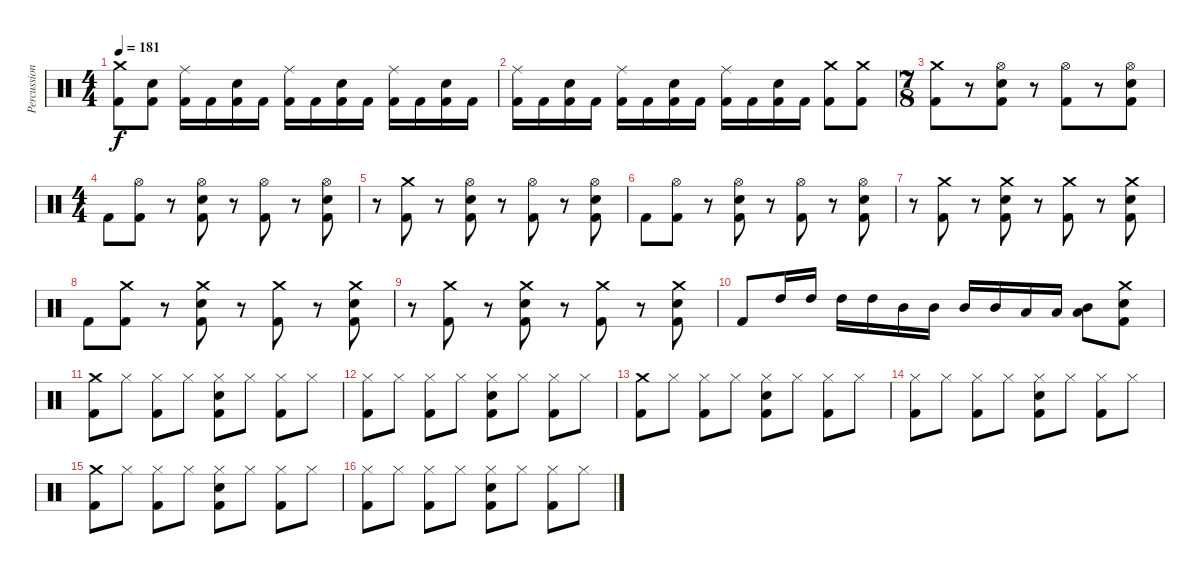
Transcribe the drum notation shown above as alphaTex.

\track ("Percussion" "Percussion") {instrument percussion}
\staff {score}
\articulation defaults
\ts (4 4)
\tempo 181
\clef neutral
\ks c
("Crash medium (hit)" "Kick (hit) 2").8{dy f} ("Electric Snare (hit)" "Kick (hit) 2").8 ("Ride (middle)" "Kick (hit) 2").16 "Kick (hit) 2".16 ("Electric Snare (hit)" "Kick (hit) 2").16 "Kick (hit) 2".16 ("Ride (middle)" "Kick (hit) 2").16 "Kick (hit) 2".16 ("Electric Snare (hit)" "Kick (hit) 2").16 "Kick (hit) 2".16 ("Ride (middle)" "Kick (hit) 2").16 "Kick (hit) 2".16 ("Electric Snare (hit)" "Kick (hit) 2").16 "Kick (hit) 2".16 |
("Ride (middle)" "Kick (hit) 2").16 "Kick (hit) 2".16 ("Electric Snare (hit)" "Kick (hit) 2").16 "Kick (hit) 2".16 ("Ride (middle)" "Kick (hit) 2").16 "Kick (hit) 2".16 ("Electric Snare (hit)" "Kick (hit) 2").16 "Kick (hit) 2".16 ("Ride (middle)" "Kick (hit) 2").16 "Kick (hit) 2".16 ("Electric Snare (hit)" "Kick (hit) 2").16 "Kick (hit) 2".16 ("Crash medium (hit)" "Kick (hit) 2").8 ("Crash medium (hit)" "Kick (hit) 2").8 |
\ts (7 8)
("Crash medium (hit)" "Kick (hit) 2").8 r.8 ("Hi-Hat (open)" "Electric Snare (hit)" "Kick (hit) 2").8 r.8 ("Hi-Hat (open)" "Kick (hit) 2").8 r.8 ("Hi-Hat (open)" "Electric Snare (hit)" "Kick (hit) 2").8 |
\ts (4 4)
"Kick (hit) 2".8 ("Hi-Hat (open)" "Kick (hit) 2").8 r.8 ("Hi-Hat (open)" "Electric Snare (hit)" "Kick (hit) 2").8 r.8 ("Hi-Hat (open)" "Kick (hit) 2").8 r.8 ("Hi-Hat (open)" "Electric Snare (hit)" "Kick (hit) 2").8 |
r.8 ("Crash medium (hit)" "Kick (hit) 2").8 r.8 ("Hi-Hat (open)" "Electric Snare (hit)" "Kick (hit) 2").8 r.8 ("Hi-Hat (open)" "Kick (hit) 2").8 r.8 ("Hi-Hat (open)" "Electric Snare (hit)" "Kick (hit) 2").8 |
"Kick (hit) 2".8 ("Hi-Hat (open)" "Kick (hit) 2").8 r.8 ("Hi-Hat (open)" "Electric Snare (hit)" "Kick (hit) 2").8 r.8 ("Hi-Hat (open)" "Kick (hit) 2").8 r.8 ("Hi-Hat (open)" "Electric Snare (hit)" "Kick (hit) 2").8 |
r.8 ("Crash medium (hit)" "Kick (hit) 2").8 r.8 ("Crash medium (hit)" "Electric Snare (hit)" "Kick (hit) 2").8 r.8 ("Crash medium (hit)" "Kick (hit) 2").8 r.8 ("Crash medium (hit)" "Electric Snare (hit)" "Kick (hit) 2").8 |
"Kick (hit) 2".8 ("Crash medium (hit)" "Kick (hit) 2").8 r.8 ("Crash medium (hit)" "Electric Snare (hit)" "Kick (hit) 2").8 r.8 ("Crash medium (hit)" "Kick (hit) 2").8 r.8 ("Crash medium (hit)" "Electric Snare (hit)" "Kick (hit) 2").8 |
r.8 ("Crash medium (hit)" "Kick (hit) 2").8 r.8 ("Crash medium (hit)" "Electric Snare (hit)" "Kick (hit) 2").8 r.8 ("Crash medium (hit)" "Kick (hit) 2").8 r.8 ("Crash medium (hit)" "Electric Snare (hit)" "Kick (hit) 2").8 |
"Kick (hit) 2".8 "High Tom (hit)".16 "High Tom (hit)".16 "High Tom (hit)".16 "High Tom (hit)".16 "Mid Tom (hit)".16 "Mid Tom (hit)".16 "Mid Tom (hit)".16 "Mid Tom (hit)".16 "Low Tom (hit)".16 "Low Tom (hit)".16 ("Mid Tom (hit)" "Low Tom (hit)").8 ("Crash medium (hit)" "Electric Snare (hit)" "Kick (hit) 2").8 |
("Crash medium (hit)" "Kick (hit) 2").8 "Hi-Hat (closed)".8 ("Hi-Hat (closed)" "Kick (hit) 2").8 "Hi-Hat (closed)".8 ("Hi-Hat (closed)" "Electric Snare (hit)" "Kick (hit) 2").8 "Hi-Hat (closed)".8 ("Hi-Hat (closed)" "Kick (hit) 2").8 "Hi-Hat (closed)".8 |
("Hi-Hat (closed)" "Kick (hit) 2").8 "Hi-Hat (closed)".8 ("Hi-Hat (closed)" "Kick (hit) 2").8 "Hi-Hat (closed)".8 ("Hi-Hat (closed)" "Electric Snare (hit)" "Kick (hit) 2").8 "Hi-Hat (closed)".8 ("Hi-Hat (closed)" "Kick (hit) 2").8 "Hi-Hat (closed)".8 |
("Crash medium (hit)" "Kick (hit) 2").8 "Hi-Hat (closed)".8 ("Hi-Hat (closed)" "Kick (hit) 2").8 "Hi-Hat (closed)".8 ("Hi-Hat (closed)" "Electric Snare (hit)" "Kick (hit) 2").8 "Hi-Hat (closed)".8 ("Hi-Hat (closed)" "Kick (hit) 2").8 "Hi-Hat (closed)".8 |
("Hi-Hat (closed)" "Kick (hit) 2").8 "Hi-Hat (closed)".8 ("Hi-Hat (closed)" "Kick (hit) 2").8 "Hi-Hat (closed)".8 ("Hi-Hat (closed)" "Electric Snare (hit)" "Kick (hit) 2").8 "Hi-Hat (closed)".8 ("Hi-Hat (closed)" "Kick (hit) 2").8 "Hi-Hat (closed)".8 |
("Crash medium (hit)" "Kick (hit) 2").8 "Hi-Hat (closed)".8 ("Hi-Hat (closed)" "Kick (hit) 2").8 "Hi-Hat (closed)".8 ("Hi-Hat (closed)" "Electric Snare (hit)" "Kick (hit) 2").8 "Hi-Hat (closed)".8 ("Hi-Hat (closed)" "Kick (hit) 2").8 "Hi-Hat (closed)".8 |
("Hi-Hat (closed)" "Kick (hit) 2").8 "Hi-Hat (closed)".8 ("Hi-Hat (closed)" "Kick (hit) 2").8 "Hi-Hat (closed)".8 ("Hi-Hat (closed)" "Electric Snare (hit)" "Kick (hit) 2").8 "Hi-Hat (closed)".8 ("Hi-Hat (closed)" "Kick (hit) 2").8 "Hi-Hat (closed)".8
